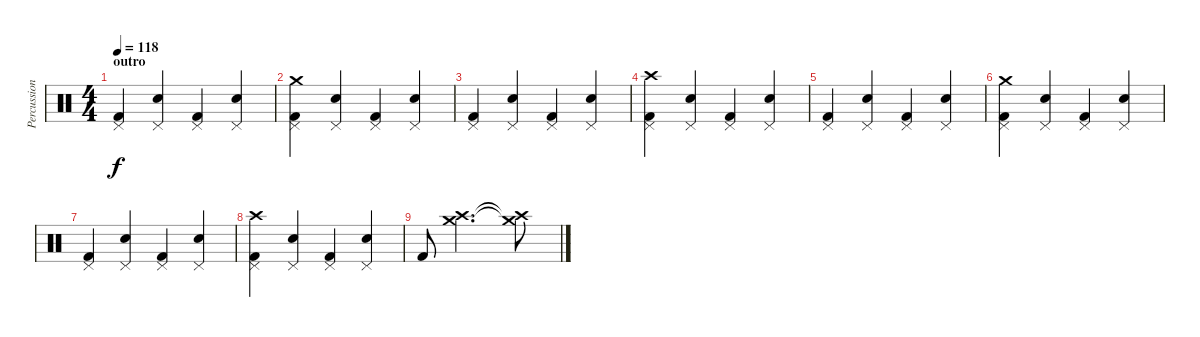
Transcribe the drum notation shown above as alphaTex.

\track ("Percussion" "Percussion") {instrument percussion}
\staff {score}
\articulation defaults
\ts (4 4)
\section ("" "outro")
\tempo 118
\clef neutral
\ks c
("Pedal Hi-Hat (hit)" "Kick (hit) 2").4{dy f} ("Pedal Hi-Hat (hit)" "Electric Snare (hit)").4 ("Pedal Hi-Hat (hit)" "Kick (hit) 2").4 ("Pedal Hi-Hat (hit)" "Electric Snare (hit)").4 |
("Crash medium (hit)" "Pedal Hi-Hat (hit)" "Kick (hit) 2").4 ("Pedal Hi-Hat (hit)" "Electric Snare (hit)").4 ("Pedal Hi-Hat (hit)" "Kick (hit) 2").4 ("Pedal Hi-Hat (hit)" "Electric Snare (hit)").4 |
("Pedal Hi-Hat (hit)" "Kick (hit) 2").4 ("Pedal Hi-Hat (hit)" "Electric Snare (hit)").4 ("Pedal Hi-Hat (hit)" "Kick (hit) 2").4 ("Pedal Hi-Hat (hit)" "Electric Snare (hit)").4 |
("Crash high (hit)" "Pedal Hi-Hat (hit)" "Kick (hit) 2").4 ("Pedal Hi-Hat (hit)" "Electric Snare (hit)").4 ("Pedal Hi-Hat (hit)" "Kick (hit) 2").4 ("Pedal Hi-Hat (hit)" "Electric Snare (hit)").4 |
("Pedal Hi-Hat (hit)" "Kick (hit) 2").4 ("Pedal Hi-Hat (hit)" "Electric Snare (hit)").4 ("Pedal Hi-Hat (hit)" "Kick (hit) 2").4 ("Pedal Hi-Hat (hit)" "Electric Snare (hit)").4 |
("Crash medium (hit)" "Pedal Hi-Hat (hit)" "Kick (hit) 2").4 ("Pedal Hi-Hat (hit)" "Electric Snare (hit)").4 ("Pedal Hi-Hat (hit)" "Kick (hit) 2").4 ("Pedal Hi-Hat (hit)" "Electric Snare (hit)").4 |
("Pedal Hi-Hat (hit)" "Kick (hit) 2").4 ("Pedal Hi-Hat (hit)" "Electric Snare (hit)").4 ("Pedal Hi-Hat (hit)" "Kick (hit) 2").4 ("Pedal Hi-Hat (hit)" "Electric Snare (hit)").4 |
("Crash high (hit)" "Pedal Hi-Hat (hit)" "Kick (hit) 2").4 ("Pedal Hi-Hat (hit)" "Electric Snare (hit)").4 ("Pedal Hi-Hat (hit)" "Kick (hit) 2").4 ("Pedal Hi-Hat (hit)" "Electric Snare (hit)").4 |
"Kick (hit) 2".8 ("Crash high (hit)" "Crash medium (hit)").2{d} ("Crash high (hit)"{t} "Crash medium (hit)"{t}).8
